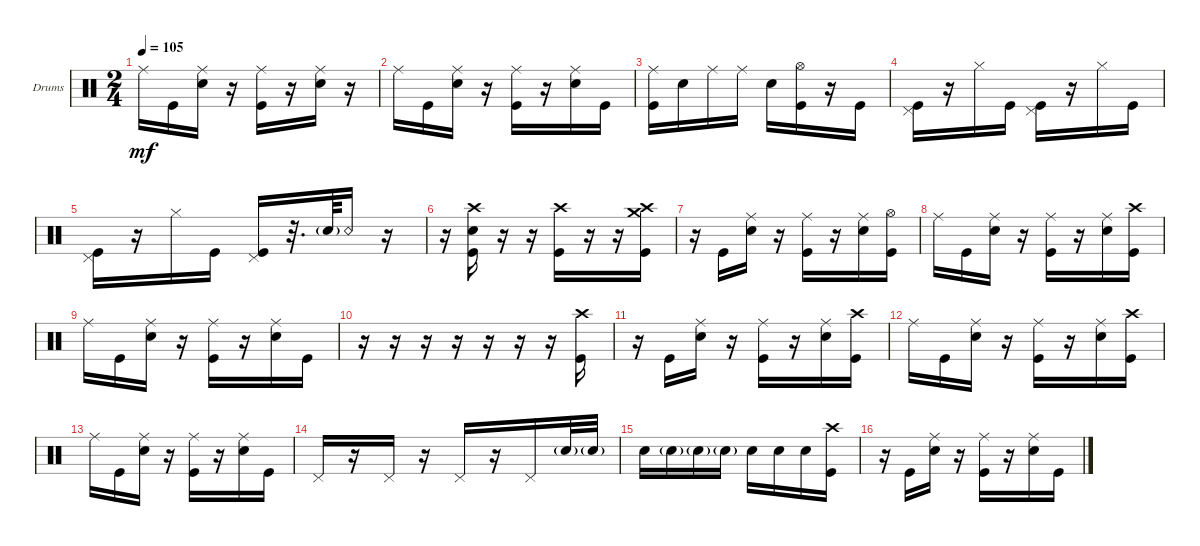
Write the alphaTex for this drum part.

\defaultSystemsLayout 4
\bracketExtendMode groupsimilarinstruments
\firstSystemTrackNameOrientation horizontal
\otherSystemsTrackNameOrientation horizontal
\track ("Godd" "Drums") {instrument percussion}
\staff {score}
\articulation defaults
\ts (2 4)
\tempo 105
\clef neutral
\ks c "Ride (middle)".16{dy mf} "Kick (hit)".16
("Ride (middle)" "Snare (hit) 2").16 r.16 ("Ride (middle)" "Kick (hit)").16 r.16 ("Ride (middle)" "Snare (hit) 2").16 r.16 |
"Ride (middle)".16 "Kick (hit)".16 ("Ride (middle)" "Snare (hit) 2").16 r.16 ("Ride (middle)" "Kick (hit)").16 r.16 ("Ride (middle)" "Snare (hit) 2").16 "Kick (hit)".16 |
("Kick (hit)" "Ride (middle)").16 "Snare (hit) 2".16 "Ride (middle)".16 "Ride (middle)".16 "Snare (hit) 2".16 ("Kick (hit)" "Hi-Hat (open)").16 r.16 "Kick (hit)".16 |
("Kick (hit)" "Pedal Hi-Hat (hit)").16 r.16 "Hi-Hat (closed)".16 "Kick (hit)".16 ("Kick (hit)" "Pedal Hi-Hat (hit)").16 r.16 "Hi-Hat (closed)".16 "Kick (hit)".16 |
("Kick (hit)" "Pedal Hi-Hat (hit)").16 r.16 "Hi-Hat (closed)".16 "Kick (hit)".16 ("Kick (hit)" "Pedal Hi-Hat (hit)").16 r.32{d} "Snare (hit) 2"{g}.64 "Snare (rim shot)".16 r.16 |
r.16 ("Crash high (hit)" "Snare (hit) 2" "Kick (hit)").16 r.16 r.16 ("Kick (hit)" "Crash high (hit)").16 r.16 r.16 ("Kick (hit)" "Crash medium (hit)" "Crash high (hit)").16 |
r.16 "Kick (hit)".16 ("Ride (middle)" "Snare (hit) 2").16 r.16 ("Ride (middle)" "Kick (hit)").16 r.16 ("Ride (middle)" "Snare (hit) 2").16 ("Kick (hit)" "Hi-Hat (open)").16 |
"Ride (middle)".16 "Kick (hit)".16 ("Ride (middle)" "Snare (hit) 2").16 r.16 ("Ride (middle)" "Kick (hit)").16 r.16 ("Ride (middle)" "Snare (hit) 2").16 ("Kick (hit)" "Crash high (hit)").16 |
"Ride (middle)".16 "Kick (hit)".16 ("Ride (middle)" "Snare (hit) 2").16 r.16 ("Ride (middle)" "Kick (hit)").16 r.16 ("Ride (middle)" "Snare (hit) 2").16 "Kick (hit)".16 |
r.16 r.16 r.16 r.16 r.16 r.16 r.16 ("Kick (hit)" "Crash high (hit)").16 |
r.16 "Kick (hit)".16 ("Ride (middle)" "Snare (hit) 2").16 r.16 ("Ride (middle)" "Kick (hit)").16 r.16 ("Ride (middle)" "Snare (hit) 2").16 ("Kick (hit)" "Crash high (hit)").16 |
"Ride (middle)".16 "Kick (hit)".16 ("Ride (middle)" "Snare (hit) 2").16 r.16 ("Ride (middle)" "Kick (hit)").16 r.16 ("Ride (middle)" "Snare (hit) 2").16 ("Kick (hit)" "Crash high (hit)").16 |
"Ride (middle)".16 "Kick (hit)".16 ("Ride (middle)" "Snare (hit) 2").16 r.16 ("Ride (middle)" "Kick (hit)").16 r.16 ("Ride (middle)" "Snare (hit) 2").16 "Kick (hit)".16 |
"Pedal Hi-Hat (hit)".16 r.16 "Pedal Hi-Hat (hit)".16 r.16 "Pedal Hi-Hat (hit)".16 r.16 "Pedal Hi-Hat (hit)".16 "Snare (hit) 2"{g}.32 "Snare (hit) 2"{g}.32 |
"Snare (hit) 2".16 "Snare (hit) 2"{g}.16 "Snare (hit) 2"{g}.16 "Snare (hit) 2"{g}.16 "Snare (hit) 2".16 "Snare (hit) 2".16 "Snare (hit) 2".16 ("Kick (hit)" "Crash high (hit)").16 |
r.16 "Kick (hit)".16 ("Ride (middle)" "Snare (hit) 2").16 r.16 ("Ride (middle)" "Kick (hit)").16 r.16 ("Ride (middle)" "Snare (hit) 2").16 "Kick (hit)".16
